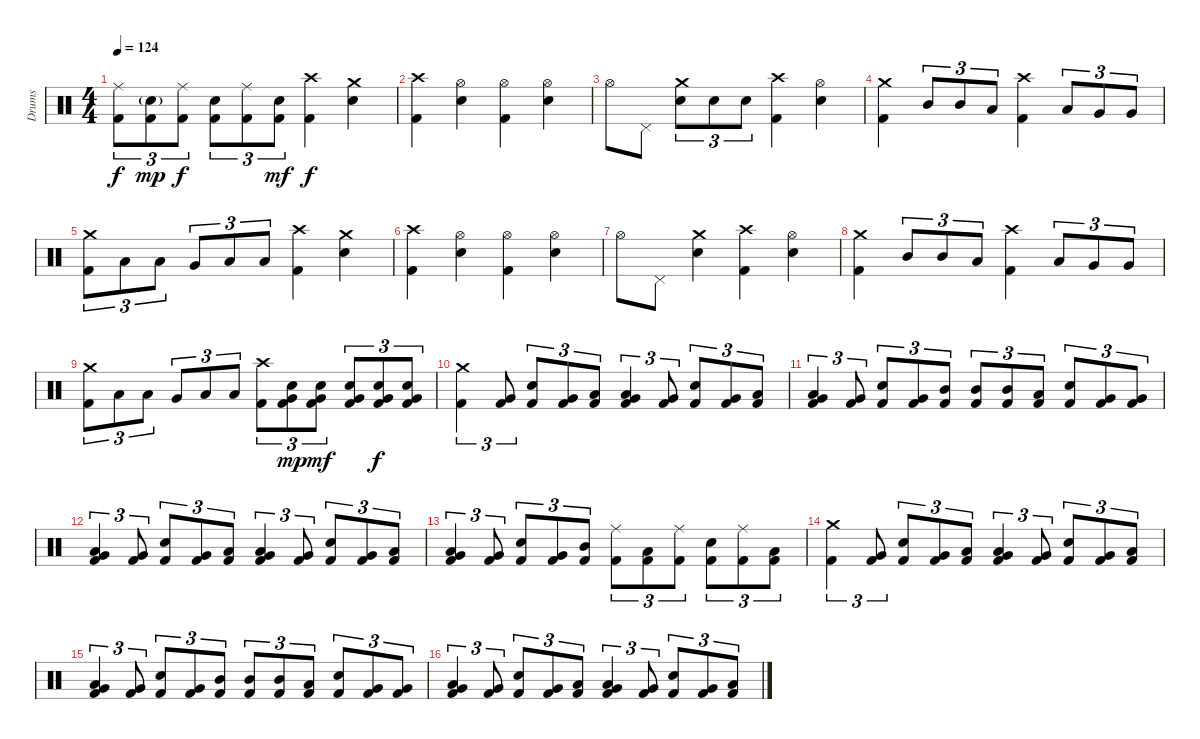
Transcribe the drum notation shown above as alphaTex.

\track ("Drums" "Drums") {instrument percussion}
\staff {score}
\articulation defaults
\ts (4 4)
\tempo 124
\clef neutral
\ks c
("Ride (middle)" "Kick (hit) 2").8{tu (3 2) dy f} ("Snare (hit) 2"{g} "Kick (hit) 2").8{tu (3 2) dy mp} ("Ride (middle)" "Kick (hit) 2").8{tu (3 2) dy f} ("Snare (hit) 2" "Kick (hit) 2").8{tu (3 2)} ("Ride (middle)" "Kick (hit) 2").8{tu (3 2)} ("Snare (hit) 2" "Kick (hit) 2").8{tu (3 2) dy mf} ("Crash high (hit)" "Kick (hit) 2").4{dy f} ("Crash medium (hit)" "Snare (hit) 2").4 |
("Crash high (hit)" "Kick (hit) 2").4 ("Hi-Hat (open)" "Snare (hit) 2").4 ("Hi-Hat (open)" "Kick (hit) 2").4 ("Hi-Hat (open)" "Snare (hit) 2").4 |
"Hi-Hat (open)".8 "Pedal Hi-Hat (hit)".8 ("Crash medium (hit)" "Snare (hit) 2").8{tu (3 2)} "Snare (hit) 2".8{tu (3 2)} "Snare (hit) 2".8{tu (3 2)} ("Crash high (hit)" "Kick (hit) 2").4 ("Hi-Hat (open)" "Snare (hit) 2").4 |
("Crash medium (hit)" "Kick (hit) 2").4 "Mid Tom (hit)".8{tu (3 2)} "Mid Tom (hit)".8{tu (3 2)} "Low Tom (hit)".8{tu (3 2)} ("Crash high (hit)" "Kick (hit) 2").4 "Low Tom (hit)".8{tu (3 2)} "Very Low Tom (hit)".8{tu (3 2)} "Very Low Tom (hit)".8{tu (3 2)} |
("Crash medium (hit)" "Kick (hit) 2").8{tu (3 2)} "Low Tom (hit)".8{tu (3 2)} "Low Tom (hit)".8{tu (3 2)} "Very Low Tom (hit)".8{tu (3 2)} "Low Floor Tom (hit)".8{tu (3 2)} "Low Floor Tom (hit)".8{tu (3 2)} ("Crash high (hit)" "Kick (hit) 2").4 ("Crash medium (hit)" "Snare (hit) 2").4 |
("Crash high (hit)" "Kick (hit) 2").4 ("Hi-Hat (open)" "Snare (hit) 2").4 ("Hi-Hat (open)" "Kick (hit) 2").4 ("Hi-Hat (open)" "Snare (hit) 2").4 |
"Hi-Hat (open)".8 "Pedal Hi-Hat (hit)".8 ("Crash medium (hit)" "Snare (hit) 2").4 ("Crash high (hit)" "Kick (hit) 2").4 ("Hi-Hat (open)" "Snare (hit) 2").4 |
("Crash medium (hit)" "Kick (hit) 2").4 "Mid Tom (hit)".8{tu (3 2)} "Mid Tom (hit)".8{tu (3 2)} "Low Tom (hit)".8{tu (3 2)} ("Crash high (hit)" "Kick (hit) 2").4 "Low Tom (hit)".8{tu (3 2)} "Very Low Tom (hit)".8{tu (3 2)} "Very Low Tom (hit)".8{tu (3 2)} |
("Crash medium (hit)" "Kick (hit) 2").8{tu (3 2)} "Low Tom (hit)".8{tu (3 2)} "Low Tom (hit)".8{tu (3 2)} "Very Low Tom (hit)".8{tu (3 2)} "Low Floor Tom (hit)".8{tu (3 2)} "Low Floor Tom (hit)".8{tu (3 2)} ("Crash high (hit)" "Kick (hit) 2").8{tu (3 2)} ("Snare (hit) 2" "Very Low Tom (hit)" "Kick (hit) 2").8{tu (3 2) dy mp} ("Snare (hit) 2" "Very Low Tom (hit)" "Kick (hit) 2").8{tu (3 2) dy mf} ("Snare (hit) 2" "Very Low Tom (hit)" "Kick (hit) 2").8{tu (3 2)} ("Snare (hit) 2" "Very Low Tom (hit)" "Kick (hit) 2").8{tu (3 2) dy f} ("Snare (hit) 2" "Very Low Tom (hit)" "Kick (hit) 2").8{tu (3 2)} |
("Crash medium (hit)" "Kick (hit) 2").4{tu (3 2)} ("Very Low Tom (hit)" "Kick (hit) 2").8{tu (3 2)} ("Snare (hit) 2" "Kick (hit) 2").8{tu (3 2)} ("Very Low Tom (hit)" "Kick (hit) 2").8{tu (3 2)} ("Low Tom (hit)" "Kick (hit) 2").8{tu (3 2)} ("Low Tom (hit)" "Very Low Tom (hit)" "Kick (hit) 2").4{tu (3 2)} ("Very Low Tom (hit)" "Kick (hit) 2").8{tu (3 2)} ("Snare (hit) 2" "Kick (hit) 2").8{tu (3 2)} ("Very Low Tom (hit)" "Kick (hit) 2").8{tu (3 2)} ("Low Tom (hit)" "Kick (hit) 2").8{tu (3 2)} |
("Low Tom (hit)" "Very Low Tom (hit)" "Kick (hit) 2").4{tu (3 2)} ("Very Low Tom (hit)" "Kick (hit) 2").8{tu (3 2)} ("Snare (hit) 2" "Kick (hit) 2").8{tu (3 2)} ("Very Low Tom (hit)" "Kick (hit) 2").8{tu (3 2)} ("Mid Tom (hit)" "Kick (hit) 2").8{tu (3 2)} ("Mid Tom (hit)" "Kick (hit) 2").8{tu (3 2)} ("Mid Tom (hit)" "Kick (hit) 2").8{tu (3 2)} ("Low Tom (hit)" "Kick (hit) 2").8{tu (3 2)} ("Snare (hit) 2" "Kick (hit) 2").8{tu (3 2)} ("Very Low Tom (hit)" "Kick (hit) 2").8{tu (3 2)} ("Very Low Tom (hit)" "Kick (hit) 2").8{tu (3 2)} |
("Low Tom (hit)" "Very Low Tom (hit)" "Kick (hit) 2").4{tu (3 2)} ("Very Low Tom (hit)" "Kick (hit) 2").8{tu (3 2)} ("Snare (hit) 2" "Kick (hit) 2").8{tu (3 2)} ("Very Low Tom (hit)" "Kick (hit) 2").8{tu (3 2)} ("Low Tom (hit)" "Kick (hit) 2").8{tu (3 2)} ("Low Tom (hit)" "Very Low Tom (hit)" "Kick (hit) 2").4{tu (3 2)} ("Very Low Tom (hit)" "Kick (hit) 2").8{tu (3 2)} ("Snare (hit) 2" "Kick (hit) 2").8{tu (3 2)} ("Very Low Tom (hit)" "Kick (hit) 2").8{tu (3 2)} ("Low Tom (hit)" "Kick (hit) 2").8{tu (3 2)} |
("Low Tom (hit)" "Very Low Tom (hit)" "Kick (hit) 2").4{tu (3 2)} ("Very Low Tom (hit)" "Kick (hit) 2").8{tu (3 2)} ("Snare (hit) 2" "Kick (hit) 2").8{tu (3 2)} ("Very Low Tom (hit)" "Kick (hit) 2").8{tu (3 2)} ("Mid Tom (hit)" "Kick (hit) 2").8{tu (3 2)} ("Ride (middle)" "Kick (hit) 2").8{tu (3 2)} ("Low Tom (hit)" "Kick (hit) 2").8{tu (3 2)} ("Ride (middle)" "Kick (hit) 2").8{tu (3 2)} ("Snare (hit) 2" "Kick (hit) 2").8{tu (3 2)} ("Ride (middle)" "Kick (hit) 2").8{tu (3 2)} ("Low Tom (hit)" "Kick (hit) 2").8{tu (3 2)} |
("Crash medium (hit)" "Kick (hit) 2").4{tu (3 2)} ("Very Low Tom (hit)" "Kick (hit) 2").8{tu (3 2)} ("Snare (hit) 2" "Kick (hit) 2").8{tu (3 2)} ("Very Low Tom (hit)" "Kick (hit) 2").8{tu (3 2)} ("Low Tom (hit)" "Kick (hit) 2").8{tu (3 2)} ("Low Tom (hit)" "Very Low Tom (hit)" "Kick (hit) 2").4{tu (3 2)} ("Very Low Tom (hit)" "Kick (hit) 2").8{tu (3 2)} ("Snare (hit) 2" "Kick (hit) 2").8{tu (3 2)} ("Very Low Tom (hit)" "Kick (hit) 2").8{tu (3 2)} ("Low Tom (hit)" "Kick (hit) 2").8{tu (3 2)} |
("Low Tom (hit)" "Very Low Tom (hit)" "Kick (hit) 2").4{tu (3 2)} ("Very Low Tom (hit)" "Kick (hit) 2").8{tu (3 2)} ("Snare (hit) 2" "Kick (hit) 2").8{tu (3 2)} ("Very Low Tom (hit)" "Kick (hit) 2").8{tu (3 2)} ("Mid Tom (hit)" "Kick (hit) 2").8{tu (3 2)} ("Mid Tom (hit)" "Kick (hit) 2").8{tu (3 2)} ("Mid Tom (hit)" "Kick (hit) 2").8{tu (3 2)} ("Low Tom (hit)" "Kick (hit) 2").8{tu (3 2)} ("Snare (hit) 2" "Kick (hit) 2").8{tu (3 2)} ("Very Low Tom (hit)" "Kick (hit) 2").8{tu (3 2)} ("Very Low Tom (hit)" "Kick (hit) 2").8{tu (3 2)} |
("Low Tom (hit)" "Very Low Tom (hit)" "Kick (hit) 2").4{tu (3 2)} ("Very Low Tom (hit)" "Kick (hit) 2").8{tu (3 2)} ("Snare (hit) 2" "Kick (hit) 2").8{tu (3 2)} ("Very Low Tom (hit)" "Kick (hit) 2").8{tu (3 2)} ("Low Tom (hit)" "Kick (hit) 2").8{tu (3 2)} ("Low Tom (hit)" "Very Low Tom (hit)" "Kick (hit) 2").4{tu (3 2)} ("Very Low Tom (hit)" "Kick (hit) 2").8{tu (3 2)} ("Snare (hit) 2" "Kick (hit) 2").8{tu (3 2)} ("Very Low Tom (hit)" "Kick (hit) 2").8{tu (3 2)} ("Low Tom (hit)" "Kick (hit) 2").8{tu (3 2)}
